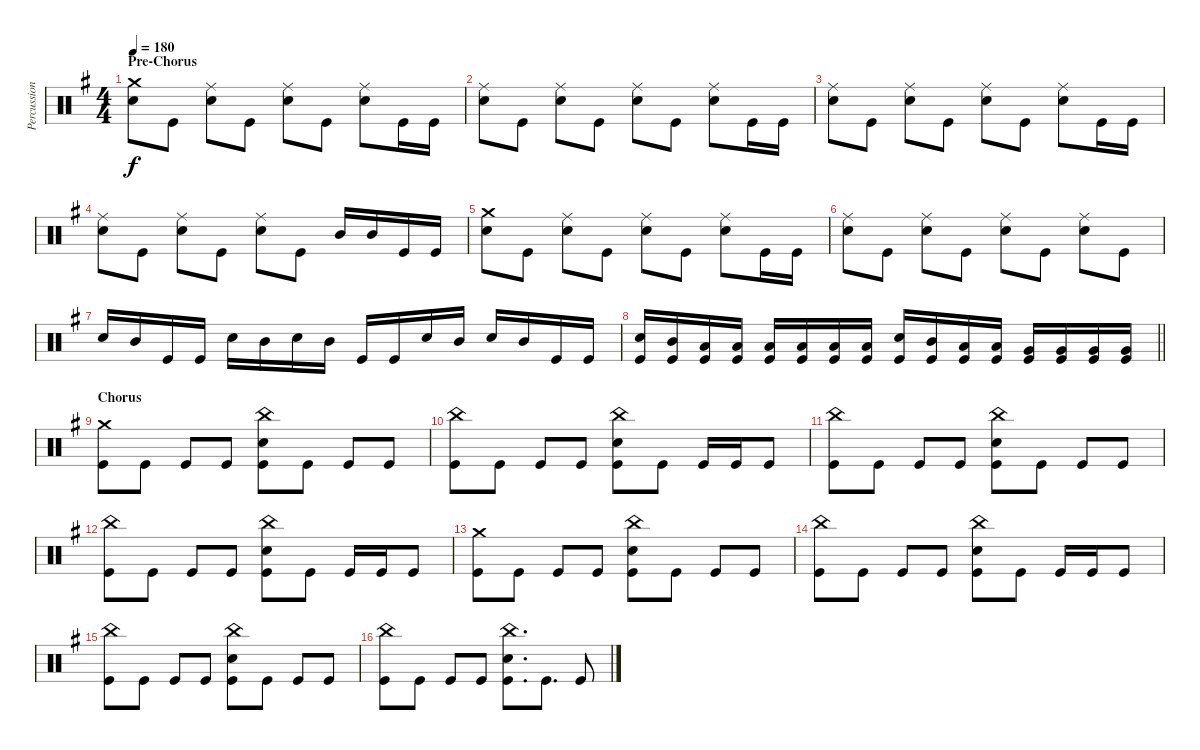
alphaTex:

\track ("Percussion" "Percussion") {instrument percussion}
\staff {score}
\articulation defaults
\ts (4 4)
\section ("" "Pre-Chorus")
\tempo 180
\clef neutral
\ks g
("Crash medium (hit)" "Electric Snare (hit)").8{dy f} "Kick (hit)".8 ("Ride (middle)" "Electric Snare (hit)").8 "Kick (hit)".8 ("Ride (middle)" "Electric Snare (hit)").8 "Kick (hit)".8 ("Ride (middle)" "Electric Snare (hit)").8 "Kick (hit)".16 "Kick (hit)".16 |
("Ride (middle)" "Electric Snare (hit)").8 "Kick (hit)".8 ("Ride (middle)" "Electric Snare (hit)").8 "Kick (hit)".8 ("Ride (middle)" "Electric Snare (hit)").8 "Kick (hit)".8 ("Ride (middle)" "Electric Snare (hit)").8 "Kick (hit)".16 "Kick (hit)".16 |
("Ride (middle)" "Electric Snare (hit)").8 "Kick (hit)".8 ("Ride (middle)" "Electric Snare (hit)").8 "Kick (hit)".8 ("Ride (middle)" "Electric Snare (hit)").8 "Kick (hit)".8 ("Ride (middle)" "Electric Snare (hit)").8 "Kick (hit)".16 "Kick (hit)".16 |
("Ride (middle)" "Electric Snare (hit)").8 "Kick (hit)".8 ("Ride (middle)" "Electric Snare (hit)").8 "Kick (hit)".8 ("Ride (middle)" "Electric Snare (hit)").8 "Kick (hit)".8 "Mid Tom (hit)".16 "Mid Tom (hit)".16 "Kick (hit)".16 "Kick (hit)".16 |
("Crash medium (hit)" "Electric Snare (hit)").8 "Kick (hit)".8 ("Ride (middle)" "Electric Snare (hit)").8 "Kick (hit)".8 ("Ride (middle)" "Electric Snare (hit)").8 "Kick (hit)".8 ("Ride (middle)" "Electric Snare (hit)").8 "Kick (hit)".16 "Kick (hit)".16 |
("Ride (middle)" "Electric Snare (hit)").8 "Kick (hit)".8 ("Ride (middle)" "Electric Snare (hit)").8 "Kick (hit)".8 ("Ride (middle)" "Electric Snare (hit)").8 "Kick (hit)".8 ("Ride (middle)" "Electric Snare (hit)").8 "Kick (hit)".8 |
"Electric Snare (hit)".16 "Mid Tom (hit)".16 "Kick (hit)".16 "Kick (hit)".16 "Electric Snare (hit)".16 "Mid Tom (hit)".16 "Electric Snare (hit)".16 "Mid Tom (hit)".16 "Kick (hit)".16 "Kick (hit)".16 "Electric Snare (hit)".16 "Mid Tom (hit)".16 "Electric Snare (hit)".16 "Mid Tom (hit)".16 "Kick (hit)".16 "Kick (hit)".16 |
\barLineRight lightlight
("Electric Snare (hit)" "Kick (hit)").16 ("Mid Tom (hit)" "Kick (hit)").16 ("Low Tom (hit)" "Kick (hit)").16 ("Low Tom (hit)" "Kick (hit)").16 ("Low Tom (hit)" "Kick (hit)").16 ("Low Tom (hit)" "Kick (hit)").16 ("Low Tom (hit)" "Kick (hit)").16 ("Low Tom (hit)" "Kick (hit)").16 ("Electric Snare (hit)" "Kick (hit)").16 ("Mid Tom (hit)" "Kick (hit)").16 ("Low Tom (hit)" "Kick (hit)").16 ("Low Tom (hit)" "Kick (hit)").16 ("Very Low Tom (hit)" "Kick (hit)").16 ("Very Low Tom (hit)" "Kick (hit)").16 ("Very Low Tom (hit)" "Kick (hit)").16 ("Very Low Tom (hit)" "Kick (hit)").16 |
\section ("" "Chorus")
("Crash medium (hit)" "Kick (hit)").8 "Kick (hit)".8 "Kick (hit)".8 "Kick (hit)".8 ("China (hit)" "Electric Snare (hit)" "Kick (hit)").8 "Kick (hit)".8 "Kick (hit)".8 "Kick (hit)".8 |
("China (hit)" "Kick (hit)").8 "Kick (hit)".8 "Kick (hit)".8 "Kick (hit)".8 ("China (hit)" "Electric Snare (hit)" "Kick (hit)").8 "Kick (hit)".8 "Kick (hit)".16 "Kick (hit)".16 "Kick (hit)".8 |
("China (hit)" "Kick (hit)").8 "Kick (hit)".8 "Kick (hit)".8 "Kick (hit)".8 ("China (hit)" "Electric Snare (hit)" "Kick (hit)").8 "Kick (hit)".8 "Kick (hit)".8 "Kick (hit)".8 |
("China (hit)" "Kick (hit)").8 "Kick (hit)".8 "Kick (hit)".8 "Kick (hit)".8 ("China (hit)" "Electric Snare (hit)" "Kick (hit)").8 "Kick (hit)".8 "Kick (hit)".16 "Kick (hit)".16 "Kick (hit)".8 |
("Crash medium (hit)" "Kick (hit)").8 "Kick (hit)".8 "Kick (hit)".8 "Kick (hit)".8 ("China (hit)" "Electric Snare (hit)" "Kick (hit)").8 "Kick (hit)".8 "Kick (hit)".8 "Kick (hit)".8 |
("China (hit)" "Kick (hit)").8 "Kick (hit)".8 "Kick (hit)".8 "Kick (hit)".8 ("China (hit)" "Electric Snare (hit)" "Kick (hit)").8 "Kick (hit)".8 "Kick (hit)".16 "Kick (hit)".16 "Kick (hit)".8 |
("China (hit)" "Kick (hit)").8 "Kick (hit)".8 "Kick (hit)".8 "Kick (hit)".8 ("China (hit)" "Electric Snare (hit)" "Kick (hit)").8 "Kick (hit)".8 "Kick (hit)".8 "Kick (hit)".8 |
("China (hit)" "Kick (hit)").8 "Kick (hit)".8 "Kick (hit)".8 "Kick (hit)".8 ("China (hit)" "Electric Snare (hit)" "Kick (hit)").8{d} "Kick (hit)".8{d} "Kick (hit)".8
